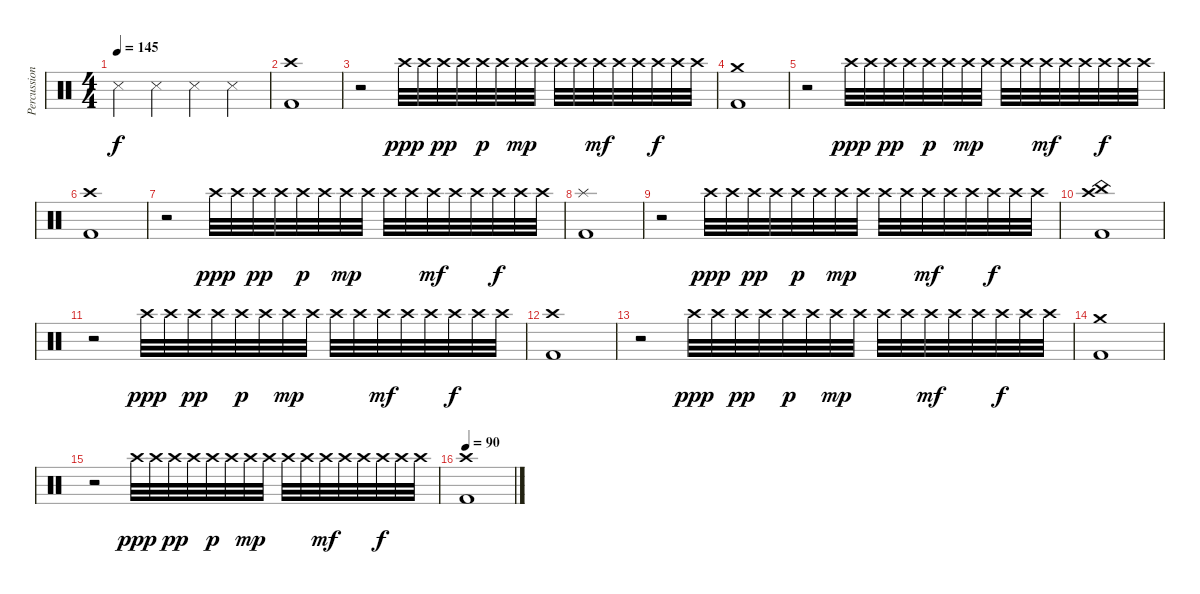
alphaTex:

\track ("Percussion" "Percussion") {instrument percussion}
\staff {score}
\articulation defaults
\ts (4 4)
\tempo 145
\clef neutral
\ks c "Snare (side stick) 3".4{dy f} "Snare (side stick) 3".4 "Snare (side stick) 3".4 "Snare (side stick) 3".4
|
("Crash high (hit)" "Kick (hit) 2").1 |
r.2 "Crash high (hit)".32{dy ppp} "Crash high (hit)".32 "Crash high (hit)".32{dy pp} "Crash high (hit)".32 "Crash high (hit)".32{dy p} "Crash high (hit)".32 "Crash high (hit)".32{dy mp} "Crash high (hit)".32 "Crash high (hit)".32 "Crash high (hit)".32 "Crash high (hit)".32{dy mf} "Crash high (hit)".32 "Crash high (hit)".32 "Crash high (hit)".32{dy f} "Crash high (hit)".32 "Crash high (hit)".32 |
("Crash medium (hit)" "Kick (hit) 2").1 |
r.2 "Crash high (hit)".32{dy ppp} "Crash high (hit)".32 "Crash high (hit)".32{dy pp} "Crash high (hit)".32 "Crash high (hit)".32{dy p} "Crash high (hit)".32 "Crash high (hit)".32{dy mp} "Crash high (hit)".32 "Crash high (hit)".32 "Crash high (hit)".32 "Crash high (hit)".32{dy mf} "Crash high (hit)".32 "Crash high (hit)".32 "Crash high (hit)".32{dy f} "Crash high (hit)".32 "Crash high (hit)".32 |
("Crash high (hit)" "Kick (hit) 2").1 |
r.2 "Crash high (hit)".32{dy ppp} "Crash high (hit)".32 "Crash high (hit)".32{dy pp} "Crash high (hit)".32 "Crash high (hit)".32{dy p} "Crash high (hit)".32 "Crash high (hit)".32{dy mp} "Crash high (hit)".32 "Crash high (hit)".32 "Crash high (hit)".32 "Crash high (hit)".32{dy mf} "Crash high (hit)".32 "Crash high (hit)".32 "Crash high (hit)".32{dy f} "Crash high (hit)".32 "Crash high (hit)".32 |
("Splash (hit)" "Kick (hit) 2").1 |
r.2 "Crash high (hit)".32{dy ppp} "Crash high (hit)".32 "Crash high (hit)".32{dy pp} "Crash high (hit)".32 "Crash high (hit)".32{dy p} "Crash high (hit)".32 "Crash high (hit)".32{dy mp} "Crash high (hit)".32 "Crash high (hit)".32 "Crash high (hit)".32 "Crash high (hit)".32{dy mf} "Crash high (hit)".32 "Crash high (hit)".32 "Crash high (hit)".32{dy f} "Crash high (hit)".32 "Crash high (hit)".32 |
("Crash high (hit)" "China (hit)" "Kick (hit) 2").1 |
r.2 "Crash high (hit)".32{dy ppp} "Crash high (hit)".32 "Crash high (hit)".32{dy pp} "Crash high (hit)".32 "Crash high (hit)".32{dy p} "Crash high (hit)".32 "Crash high (hit)".32{dy mp} "Crash high (hit)".32 "Crash high (hit)".32 "Crash high (hit)".32 "Crash high (hit)".32{dy mf} "Crash high (hit)".32 "Crash high (hit)".32 "Crash high (hit)".32{dy f} "Crash high (hit)".32 "Crash high (hit)".32 |
("Crash high (hit)" "Kick (hit) 2").1 |
r.2 "Crash high (hit)".32{dy ppp} "Crash high (hit)".32 "Crash high (hit)".32{dy pp} "Crash high (hit)".32 "Crash high (hit)".32{dy p} "Crash high (hit)".32 "Crash high (hit)".32{dy mp} "Crash high (hit)".32 "Crash high (hit)".32 "Crash high (hit)".32 "Crash high (hit)".32{dy mf} "Crash high (hit)".32 "Crash high (hit)".32 "Crash high (hit)".32{dy f} "Crash high (hit)".32 "Crash high (hit)".32 |
("Crash medium (hit)" "Kick (hit) 2").1 |
r.2 "Crash high (hit)".32{dy ppp} "Crash high (hit)".32 "Crash high (hit)".32{dy pp} "Crash high (hit)".32 "Crash high (hit)".32{dy p} "Crash high (hit)".32 "Crash high (hit)".32{dy mp} "Crash high (hit)".32 "Crash high (hit)".32 "Crash high (hit)".32 "Crash high (hit)".32{dy mf} "Crash high (hit)".32 "Crash high (hit)".32 "Crash high (hit)".32{dy f} "Crash high (hit)".32 "Crash high (hit)".32 |
\tempo 90
("Crash high (hit)" "Kick (hit) 2").1
